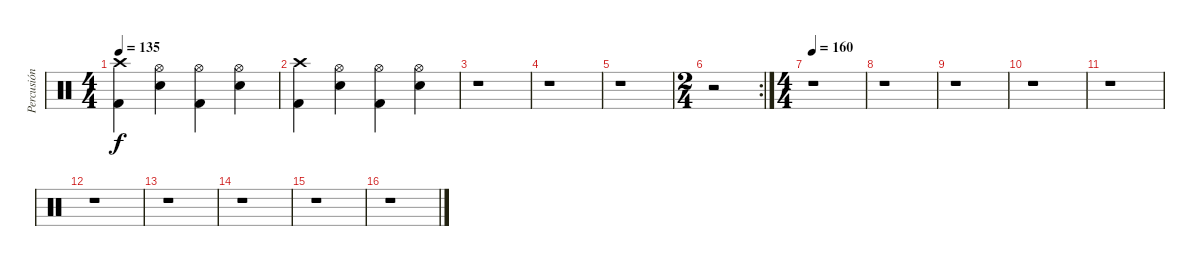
\track ("Percusión" "Percusión") {instrument percussion}
\staff {score}
\articulation defaults
\ts (4 4)
\tempo 135
\clef neutral
\ks c
("Crash high (hit)" "Kick (hit) 2").4{dy f} ("Hi-Hat (open)" "Snare (hit) 2").4 ("Hi-Hat (open)" "Kick (hit) 2").4 ("Hi-Hat (open)" "Snare (hit) 2").4 |
("Crash high (hit)" "Kick (hit) 2").4 ("Hi-Hat (open)" "Snare (hit) 2").4 ("Hi-Hat (open)" "Kick (hit) 2").4 ("Hi-Hat (open)" "Snare (hit) 2").4 |
r.1 |
r.1 |
r.1 |
\rc 2
\ts (2 4)
r.2 |
\ts (4 4)
\tempo 160
r.1 |
r.1 |
r.1 |
r.1 |
r.1 |
r.1 |
r.1 |
r.1 |
r.1 |
r.1
